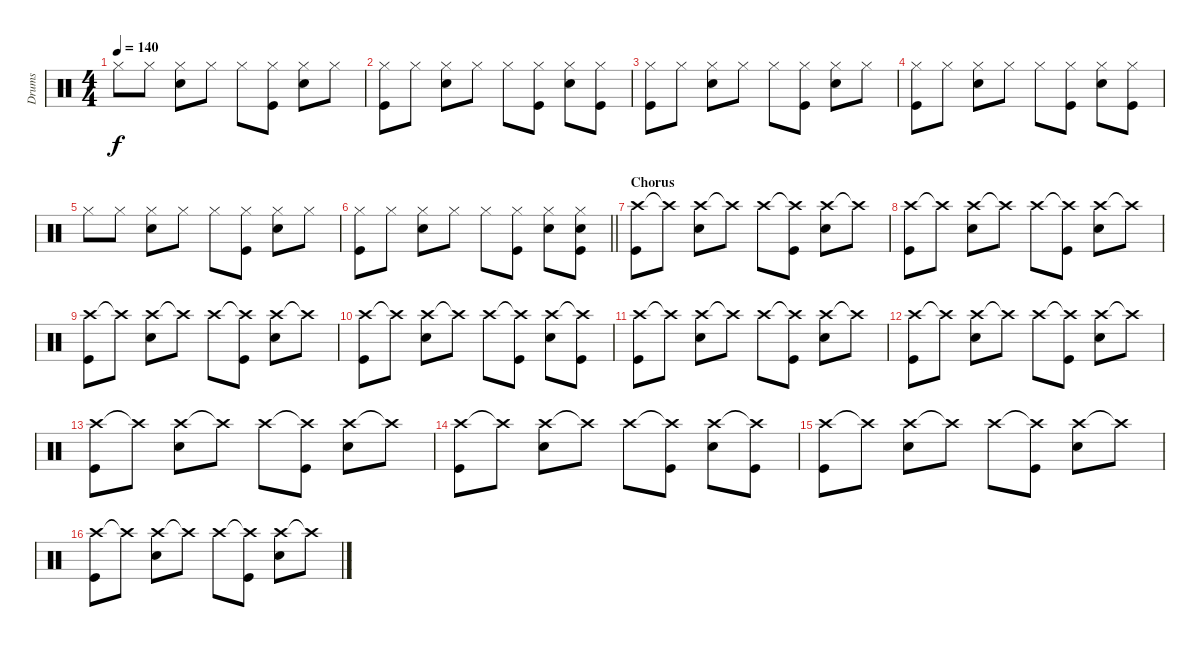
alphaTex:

\track ("Drums" "Drums") {instrument percussion}
\staff {score}
\articulation defaults
\ts (4 4)
\tempo 140
\clef neutral
\ks c "Hi-Hat (closed)".8{dy f} "Hi-Hat (closed)".8
("Hi-Hat (closed)" "Snare (hit) 2").8 "Hi-Hat (closed)".8 "Hi-Hat (closed)".8 ("Hi-Hat (closed)" "Kick (hit)").8 ("Hi-Hat (closed)" "Snare (hit) 2").8 "Hi-Hat (closed)".8 |
("Hi-Hat (closed)" "Kick (hit)").8 "Hi-Hat (closed)".8 ("Hi-Hat (closed)" "Snare (hit) 2").8 "Hi-Hat (closed)".8 "Hi-Hat (closed)".8 ("Hi-Hat (closed)" "Kick (hit)").8 ("Hi-Hat (closed)" "Snare (hit) 2").8 ("Hi-Hat (closed)" "Kick (hit)").8 |
("Hi-Hat (closed)" "Kick (hit)").8 "Hi-Hat (closed)".8 ("Hi-Hat (closed)" "Snare (hit) 2").8 "Hi-Hat (closed)".8 "Hi-Hat (closed)".8 ("Hi-Hat (closed)" "Kick (hit)").8 ("Hi-Hat (closed)" "Snare (hit) 2").8 "Hi-Hat (closed)".8 |
("Hi-Hat (closed)" "Kick (hit)").8 "Hi-Hat (closed)".8 ("Hi-Hat (closed)" "Snare (hit) 2").8 "Hi-Hat (closed)".8 "Hi-Hat (closed)".8 ("Hi-Hat (closed)" "Kick (hit)").8 ("Hi-Hat (closed)" "Snare (hit) 2").8 ("Hi-Hat (closed)" "Kick (hit)").8 |
"Hi-Hat (closed)".8 "Hi-Hat (closed)".8 ("Hi-Hat (closed)" "Snare (hit) 2").8 "Hi-Hat (closed)".8 "Hi-Hat (closed)".8 ("Hi-Hat (closed)" "Kick (hit)").8 ("Hi-Hat (closed)" "Snare (hit) 2").8 "Hi-Hat (closed)".8 |
\barLineRight lightlight
("Hi-Hat (closed)" "Kick (hit)").8 "Hi-Hat (closed)".8 ("Hi-Hat (closed)" "Snare (hit) 2").8 "Hi-Hat (closed)".8 "Hi-Hat (closed)".8 ("Hi-Hat (closed)" "Kick (hit)").8 ("Hi-Hat (closed)" "Snare (hit) 2").8 ("Hi-Hat (closed)" "Snare (hit) 2" "Kick (hit)").8 |
\section ("" "Chorus")
("Crash high (hit)" "Kick (hit)").8 "Crash high (hit)"{t}.8 ("Crash high (hit)" "Snare (hit) 2").8 "Crash high (hit)"{t}.8 "Crash high (hit)".8 ("Crash high (hit)"{t} "Kick (hit)").8 ("Crash high (hit)" "Snare (hit) 2").8 "Crash high (hit)"{t}.8 |
("Crash high (hit)" "Kick (hit)").8 "Crash high (hit)"{t}.8 ("Crash high (hit)" "Snare (hit) 2").8 "Crash high (hit)"{t}.8 "Crash high (hit)".8 ("Crash high (hit)"{t} "Kick (hit)").8 ("Crash high (hit)" "Snare (hit) 2").8 "Crash high (hit)"{t}.8 |
("Crash high (hit)" "Kick (hit)").8 "Crash high (hit)"{t}.8 ("Crash high (hit)" "Snare (hit) 2").8 "Crash high (hit)"{t}.8 "Crash high (hit)".8 ("Crash high (hit)"{t} "Kick (hit)").8 ("Crash high (hit)" "Snare (hit) 2").8 "Crash high (hit)"{t}.8 |
("Crash high (hit)" "Kick (hit)").8 "Crash high (hit)"{t}.8 ("Crash high (hit)" "Snare (hit) 2").8 "Crash high (hit)"{t}.8 "Crash high (hit)".8 ("Crash high (hit)"{t} "Kick (hit)").8 ("Crash high (hit)" "Snare (hit) 2").8 ("Crash high (hit)"{t} "Kick (hit)").8 |
("Crash high (hit)" "Kick (hit)").8 "Crash high (hit)"{t}.8 ("Crash high (hit)" "Snare (hit) 2").8 "Crash high (hit)"{t}.8 "Crash high (hit)".8 ("Crash high (hit)"{t} "Kick (hit)").8 ("Crash high (hit)" "Snare (hit) 2").8 "Crash high (hit)"{t}.8 |
("Crash high (hit)" "Kick (hit)").8 "Crash high (hit)"{t}.8 ("Crash high (hit)" "Snare (hit) 2").8 "Crash high (hit)"{t}.8 "Crash high (hit)".8 ("Crash high (hit)"{t} "Kick (hit)").8 ("Crash high (hit)" "Snare (hit) 2").8 "Crash high (hit)"{t}.8 |
("Crash high (hit)" "Kick (hit)").8 "Crash high (hit)"{t}.8 ("Crash high (hit)" "Snare (hit) 2").8 "Crash high (hit)"{t}.8 "Crash high (hit)".8 ("Crash high (hit)"{t} "Kick (hit)").8 ("Crash high (hit)" "Snare (hit) 2").8 "Crash high (hit)"{t}.8 |
("Crash high (hit)" "Kick (hit)").8 "Crash high (hit)"{t}.8 ("Crash high (hit)" "Snare (hit) 2").8 "Crash high (hit)"{t}.8 "Crash high (hit)".8 ("Crash high (hit)"{t} "Kick (hit)").8 ("Crash high (hit)" "Snare (hit) 2").8 ("Crash high (hit)"{t} "Kick (hit)").8 |
("Crash high (hit)" "Kick (hit)").8 "Crash high (hit)"{t}.8 ("Crash high (hit)" "Snare (hit) 2").8 "Crash high (hit)"{t}.8 "Crash high (hit)".8 ("Crash high (hit)"{t} "Kick (hit)").8 ("Crash high (hit)" "Snare (hit) 2").8 "Crash high (hit)"{t}.8 |
("Crash high (hit)" "Kick (hit)").8 "Crash high (hit)"{t}.8 ("Crash high (hit)" "Snare (hit) 2").8 "Crash high (hit)"{t}.8 "Crash high (hit)".8 ("Crash high (hit)"{t} "Kick (hit)").8 ("Crash high (hit)" "Snare (hit) 2").8 "Crash high (hit)"{t}.8
